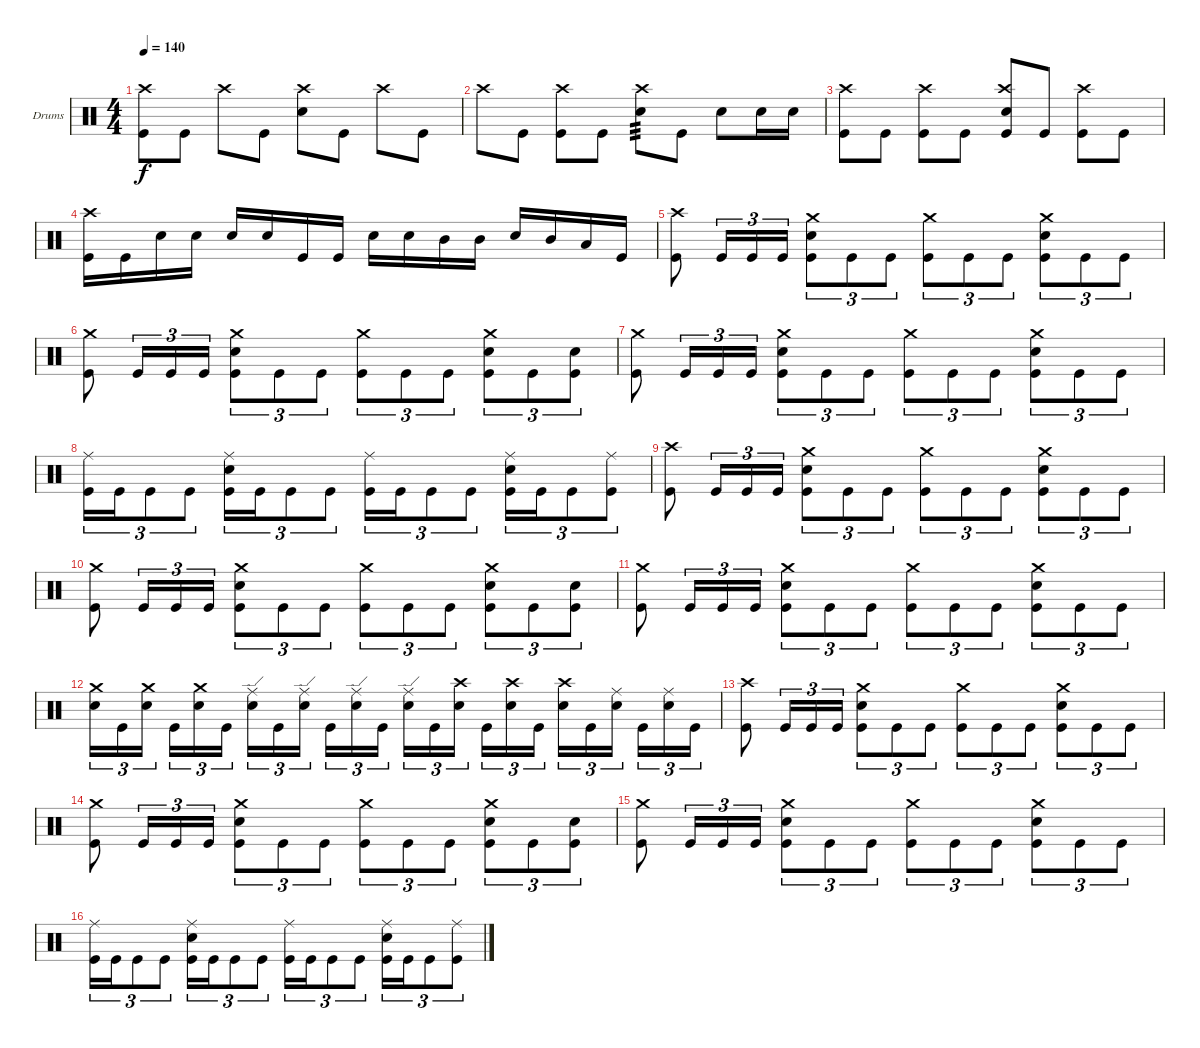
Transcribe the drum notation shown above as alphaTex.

\bracketExtendMode groupsimilarinstruments
\firstSystemTrackNameOrientation horizontal
\otherSystemsTrackNameOrientation horizontal
\track ("Drumkit" "Drums") {instrument percussion}
\staff {score}
\articulation defaults
\ts (4 4)
\tempo 140
\clef neutral
\ks c
("Kick (hit)" "Crash high (hit)").8{dy f} "Kick (hit)".8 "Crash high (hit)".8 "Kick (hit)".8 ("Snare (hit) 2" "Crash high (hit)").8 "Kick (hit)".8 "Crash high (hit)".8 "Kick (hit)".8 |
"Crash high (hit)".8 "Kick (hit)".8 ("Kick (hit)" "Crash high (hit)").8 "Kick (hit)".8 ("Snare (hit) 2" "Crash high (hit)").8{tp 3} "Kick (hit)".8 "Snare (hit) 2".8 "Snare (hit) 2".16 "Snare (hit) 2".16 |
("Kick (hit)" "Crash high (hit)").8 "Kick (hit)".8 ("Kick (hit)" "Crash high (hit)").8 "Kick (hit)".8 ("Kick (hit)" "Crash high (hit)" "Snare (hit) 2").8 "Kick (hit)".8 ("Kick (hit)" "Crash high (hit)").8 "Kick (hit)".8 |
("Kick (hit)" "Crash high (hit)").16 "Kick (hit)".16 "Snare (hit) 2".16 "Snare (hit) 2".16 "Snare (hit) 2".16 "Snare (hit) 2".16 "Kick (hit)".16 "Kick (hit)".16 "Snare (hit) 2".16 "Snare (hit) 2".16 "Mid Tom (hit)".16 "Mid Tom (hit)".16 "Snare (hit) 2".16 "Mid Tom (hit)".16 "Low Tom (hit)".16 "Kick (hit)".16 |
("Kick (hit)" "Crash high (hit)").8 "Kick (hit)".16{tu (3 2)} "Kick (hit)".16{tu (3 2)} "Kick (hit)".16{tu (3 2)} ("Kick (hit)" "Crash medium (hit)" "Snare (hit) 2").8{tu (3 2)} "Kick (hit)".8{tu (3 2)} "Kick (hit)".8{tu (3 2)} ("Kick (hit)" "Crash medium (hit)").8{tu (3 2)} "Kick (hit)".8{tu (3 2)} "Kick (hit)".8{tu (3 2)} ("Kick (hit)" "Crash medium (hit)" "Snare (hit) 2").8{tu (3 2)} "Kick (hit)".8{tu (3 2)} "Kick (hit)".8{tu (3 2)} |
("Kick (hit)" "Crash medium (hit)").8 "Kick (hit)".16{tu (3 2)} "Kick (hit)".16{tu (3 2)} "Kick (hit)".16{tu (3 2)} ("Kick (hit)" "Crash medium (hit)" "Snare (hit) 2").8{tu (3 2)} "Kick (hit)".8{tu (3 2)} "Kick (hit)".8{tu (3 2)} ("Kick (hit)" "Crash medium (hit)").8{tu (3 2)} "Kick (hit)".8{tu (3 2)} "Kick (hit)".8{tu (3 2)} ("Kick (hit)" "Crash medium (hit)" "Snare (hit) 2").8{tu (3 2)} "Kick (hit)".8{tu (3 2)} ("Kick (hit)" "Snare (hit) 2").8{tu (3 2)} |
("Kick (hit)" "Crash medium (hit)").8 "Kick (hit)".16{tu (3 2)} "Kick (hit)".16{tu (3 2)} "Kick (hit)".16{tu (3 2)} ("Kick (hit)" "Crash medium (hit)" "Snare (hit) 2").8{tu (3 2)} "Kick (hit)".8{tu (3 2)} "Kick (hit)".8{tu (3 2)} ("Kick (hit)" "Crash medium (hit)").8{tu (3 2)} "Kick (hit)".8{tu (3 2)} "Kick (hit)".8{tu (3 2)} ("Kick (hit)" "Crash medium (hit)" "Snare (hit) 2").8{tu (3 2)} "Kick (hit)".8{tu (3 2)} "Kick (hit)".8{tu (3 2)} |
("Kick (hit)" "Ride (middle)").16{tu (3 2)} "Kick (hit)".16{tu (3 2)} "Kick (hit)".8{tu (3 2)} "Kick (hit)".8{tu (3 2)} ("Kick (hit)" "Ride (middle)" "Snare (hit) 2").16{tu (3 2)} "Kick (hit)".16{tu (3 2)} "Kick (hit)".8{tu (3 2)} "Kick (hit)".8{tu (3 2)} ("Kick (hit)" "Ride (middle)").16{tu (3 2)} "Kick (hit)".16{tu (3 2)} "Kick (hit)".8{tu (3 2)} "Kick (hit)".8{tu (3 2)} ("Kick (hit)" "Ride (middle)" "Snare (hit) 2").16{tu (3 2)} "Kick (hit)".16{tu (3 2)} "Kick (hit)".8{tu (3 2)} ("Kick (hit)" "Ride (middle)").8{tu (3 2)} |
("Kick (hit)" "Crash high (hit)").8 "Kick (hit)".16{tu (3 2)} "Kick (hit)".16{tu (3 2)} "Kick (hit)".16{tu (3 2)} ("Kick (hit)" "Crash medium (hit)" "Snare (hit) 2").8{tu (3 2)} "Kick (hit)".8{tu (3 2)} "Kick (hit)".8{tu (3 2)} ("Kick (hit)" "Crash medium (hit)").8{tu (3 2)} "Kick (hit)".8{tu (3 2)} "Kick (hit)".8{tu (3 2)} ("Kick (hit)" "Crash medium (hit)" "Snare (hit) 2").8{tu (3 2)} "Kick (hit)".8{tu (3 2)} "Kick (hit)".8{tu (3 2)} |
("Kick (hit)" "Crash medium (hit)").8 "Kick (hit)".16{tu (3 2)} "Kick (hit)".16{tu (3 2)} "Kick (hit)".16{tu (3 2)} ("Kick (hit)" "Crash medium (hit)" "Snare (hit) 2").8{tu (3 2)} "Kick (hit)".8{tu (3 2)} "Kick (hit)".8{tu (3 2)} ("Kick (hit)" "Crash medium (hit)").8{tu (3 2)} "Kick (hit)".8{tu (3 2)} "Kick (hit)".8{tu (3 2)} ("Kick (hit)" "Crash medium (hit)" "Snare (hit) 2").8{tu (3 2)} "Kick (hit)".8{tu (3 2)} ("Kick (hit)" "Snare (hit) 2").8{tu (3 2)} |
("Kick (hit)" "Crash medium (hit)").8 "Kick (hit)".16{tu (3 2)} "Kick (hit)".16{tu (3 2)} "Kick (hit)".16{tu (3 2)} ("Kick (hit)" "Crash medium (hit)" "Snare (hit) 2").8{tu (3 2)} "Kick (hit)".8{tu (3 2)} "Kick (hit)".8{tu (3 2)} ("Kick (hit)" "Crash medium (hit)").8{tu (3 2)} "Kick (hit)".8{tu (3 2)} "Kick (hit)".8{tu (3 2)} ("Kick (hit)" "Crash medium (hit)" "Snare (hit) 2").8{tu (3 2)} "Kick (hit)".8{tu (3 2)} "Kick (hit)".8{tu (3 2)} |
("Snare (hit) 2" "Crash medium (hit)").16{tu (3 2)} "Kick (hit)".16{tu (3 2)} ("Snare (hit) 2" "Crash medium (hit)").16{tu (3 2)} "Kick (hit)".16{tu (3 2)} ("Snare (hit) 2" "Crash medium (hit)").16{tu (3 2)} "Kick (hit)".16{tu (3 2)} ("Snare (hit) 2" "Ride (edge)").16{tu (3 2)} "Kick (hit)".16{tu (3 2)} ("Snare (hit) 2" "Ride (edge)").16{tu (3 2)} "Kick (hit)".16{tu (3 2)} ("Snare (hit) 2" "Ride (edge)").16{tu (3 2)} "Kick (hit)".16{tu (3 2)} ("Snare (hit) 2" "Ride (edge)").16{tu (3 2)} "Kick (hit)".16{tu (3 2)} ("Snare (hit) 2" "Crash high (hit)").16{tu (3 2)} "Kick (hit)".16{tu (3 2)} ("Snare (hit) 2" "Crash high (hit)").16{tu (3 2)} "Kick (hit)".16{tu (3 2)} ("Snare (hit) 2" "Crash high (hit)").16{tu (3 2)} "Kick (hit)".16{tu (3 2)} ("Snare (hit) 2" "Ride (middle)").16{tu (3 2)} "Kick (hit)".16{tu (3 2)} ("Snare (hit) 2" "Ride (middle)").16{tu (3 2)} "Kick (hit)".16{tu (3 2)} |
("Kick (hit)" "Crash high (hit)").8 "Kick (hit)".16{tu (3 2)} "Kick (hit)".16{tu (3 2)} "Kick (hit)".16{tu (3 2)} ("Kick (hit)" "Crash medium (hit)" "Snare (hit) 2").8{tu (3 2)} "Kick (hit)".8{tu (3 2)} "Kick (hit)".8{tu (3 2)} ("Kick (hit)" "Crash medium (hit)").8{tu (3 2)} "Kick (hit)".8{tu (3 2)} "Kick (hit)".8{tu (3 2)} ("Kick (hit)" "Crash medium (hit)" "Snare (hit) 2").8{tu (3 2)} "Kick (hit)".8{tu (3 2)} "Kick (hit)".8{tu (3 2)} |
("Kick (hit)" "Crash medium (hit)").8 "Kick (hit)".16{tu (3 2)} "Kick (hit)".16{tu (3 2)} "Kick (hit)".16{tu (3 2)} ("Kick (hit)" "Crash medium (hit)" "Snare (hit) 2").8{tu (3 2)} "Kick (hit)".8{tu (3 2)} "Kick (hit)".8{tu (3 2)} ("Kick (hit)" "Crash medium (hit)").8{tu (3 2)} "Kick (hit)".8{tu (3 2)} "Kick (hit)".8{tu (3 2)} ("Kick (hit)" "Crash medium (hit)" "Snare (hit) 2").8{tu (3 2)} "Kick (hit)".8{tu (3 2)} ("Kick (hit)" "Snare (hit) 2").8{tu (3 2)} |
("Kick (hit)" "Crash medium (hit)").8 "Kick (hit)".16{tu (3 2)} "Kick (hit)".16{tu (3 2)} "Kick (hit)".16{tu (3 2)} ("Kick (hit)" "Crash medium (hit)" "Snare (hit) 2").8{tu (3 2)} "Kick (hit)".8{tu (3 2)} "Kick (hit)".8{tu (3 2)} ("Kick (hit)" "Crash medium (hit)").8{tu (3 2)} "Kick (hit)".8{tu (3 2)} "Kick (hit)".8{tu (3 2)} ("Kick (hit)" "Crash medium (hit)" "Snare (hit) 2").8{tu (3 2)} "Kick (hit)".8{tu (3 2)} "Kick (hit)".8{tu (3 2)} |
("Kick (hit)" "Ride (middle)").16{tu (3 2)} "Kick (hit)".16{tu (3 2)} "Kick (hit)".8{tu (3 2)} "Kick (hit)".8{tu (3 2)} ("Kick (hit)" "Ride (middle)" "Snare (hit) 2").16{tu (3 2)} "Kick (hit)".16{tu (3 2)} "Kick (hit)".8{tu (3 2)} "Kick (hit)".8{tu (3 2)} ("Kick (hit)" "Ride (middle)").16{tu (3 2)} "Kick (hit)".16{tu (3 2)} "Kick (hit)".8{tu (3 2)} "Kick (hit)".8{tu (3 2)} ("Kick (hit)" "Ride (middle)" "Snare (hit) 2").16{tu (3 2)} "Kick (hit)".16{tu (3 2)} "Kick (hit)".8{tu (3 2)} ("Kick (hit)" "Ride (middle)").8{tu (3 2)}
